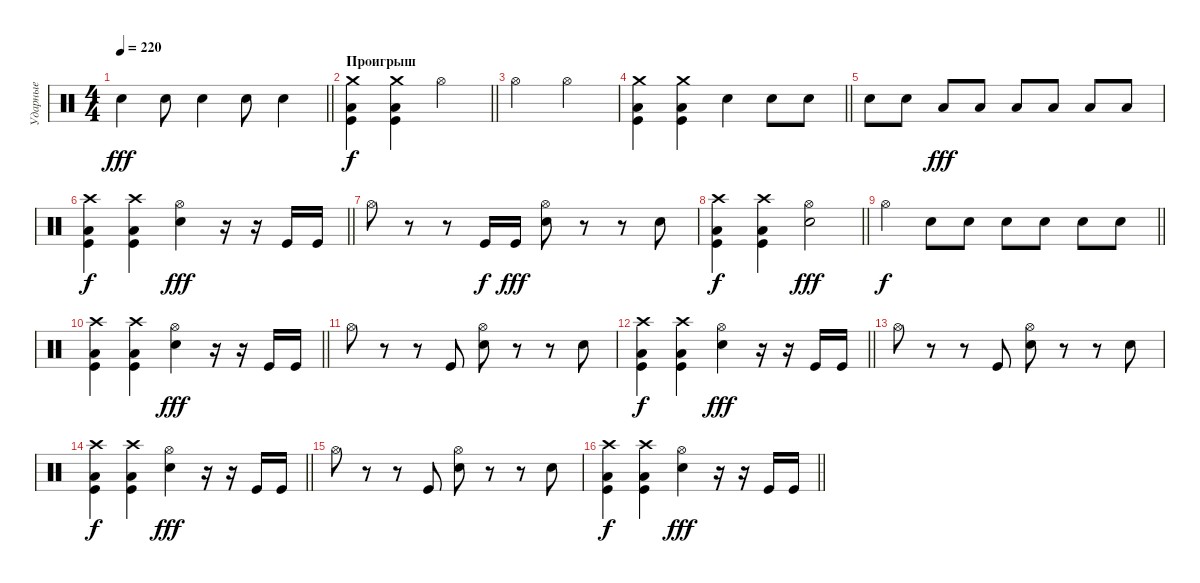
\track ("Ударные" "Ударные") {instrument percussion}
\staff {score}
\articulation defaults
\ts (4 4)
\tempo 220
\clef neutral
\barLineRight lightlight
\ks c "Snare (hit) 2".4{dy fff} "Snare (hit) 2".8 "Snare (hit) 2".4 "Snare (hit) 2".8 "Snare (hit) 2".4
|
\section ("" "Проигрыш")
\barLineRight lightlight
("Crash medium (hit)" "Low Tom (hit)" "Kick (hit)").4{dy f} ("Crash medium (hit)" "Low Tom (hit)" "Kick (hit)").4 "Hi-Hat (open)".2 |
"Hi-Hat (open)".2 "Hi-Hat (open)".2 |
\barLineRight lightlight
("Crash medium (hit)" "Low Tom (hit)" "Kick (hit)").4 ("Crash medium (hit)" "Low Tom (hit)" "Kick (hit)").4 "Snare (hit) 2".4 "Snare (hit) 2".8 "Snare (hit) 2".8 |
"Snare (hit) 2".8 "Snare (hit) 2".8 "Low Floor Tom (hit)".8{dy fff} "Low Floor Tom (hit)".8 "Low Floor Tom (hit)".8 "Low Tom (hit)".8 "Low Tom (hit)".8 "Low Tom (hit)".8 |
\barLineRight lightlight
("Crash high (hit)" "Low Tom (hit)" "Kick (hit)").4{dy f} ("Crash high (hit)" "Low Tom (hit)" "Kick (hit)").4 ("Hi-Hat (open)" "Snare (hit) 2").4{dy fff} r.16 r.16 "Kick (hit)".16 "Kick (hit)".16 |
"Hi-Hat (open)".8 r.8 r.8 "Kick (hit)".16{dy f} "Kick (hit)".16{dy fff} ("Hi-Hat (open)" "Snare (hit) 2").8 r.8 r.8 "Snare (hit) 2".8 |
\barLineRight lightlight
("Crash high (hit)" "Low Tom (hit)" "Kick (hit)").4{dy f} ("Crash high (hit)" "Low Tom (hit)" "Kick (hit)").4 ("Hi-Hat (open)" "Snare (hit) 2").2{dy fff} |
\barLineRight lightlight "Hi-Hat (open)".4{dy f} "Snare (hit) 2".8 "Snare (hit) 2".8 "Snare (hit) 2".8 "Snare (hit) 2".8 "Snare (hit) 2".8 "Snare (hit) 2".8
|
\barLineRight lightlight
("Crash high (hit)" "Low Tom (hit)" "Kick (hit)").4 ("Crash high (hit)" "Low Tom (hit)" "Kick (hit)").4 ("Hi-Hat (open)" "Snare (hit) 2").4{dy fff} r.16 r.16 "Kick (hit)".16 "Kick (hit)".16 |
"Hi-Hat (open)".8 r.8 r.8 "Kick (hit)".8 ("Hi-Hat (open)" "Snare (hit) 2").8 r.8 r.8 "Snare (hit) 2".8 |
\barLineRight lightlight
("Crash high (hit)" "Low Tom (hit)" "Kick (hit)").4{dy f} ("Crash high (hit)" "Low Tom (hit)" "Kick (hit)").4 ("Hi-Hat (open)" "Snare (hit) 2").4{dy fff} r.16 r.16 "Kick (hit)".16 "Kick (hit)".16 |
"Hi-Hat (open)".8 r.8 r.8 "Kick (hit)".8 ("Hi-Hat (open)" "Snare (hit) 2").8 r.8 r.8 "Snare (hit) 2".8 |
\barLineRight lightlight
("Crash high (hit)" "Low Tom (hit)" "Kick (hit)").4{dy f} ("Crash high (hit)" "Low Tom (hit)" "Kick (hit)").4 ("Hi-Hat (open)" "Snare (hit) 2").4{dy fff} r.16 r.16 "Kick (hit)".16 "Kick (hit)".16 |
"Hi-Hat (open)".8 r.8 r.8 "Kick (hit)".8 ("Hi-Hat (open)" "Snare (hit) 2").8 r.8 r.8 "Snare (hit) 2".8 |
\barLineRight lightlight
("Crash high (hit)" "Low Tom (hit)" "Kick (hit)").4{dy f} ("Crash high (hit)" "Low Tom (hit)" "Kick (hit)").4 ("Hi-Hat (open)" "Snare (hit) 2").4{dy fff} r.16 r.16 "Kick (hit)".16 "Kick (hit)".16
